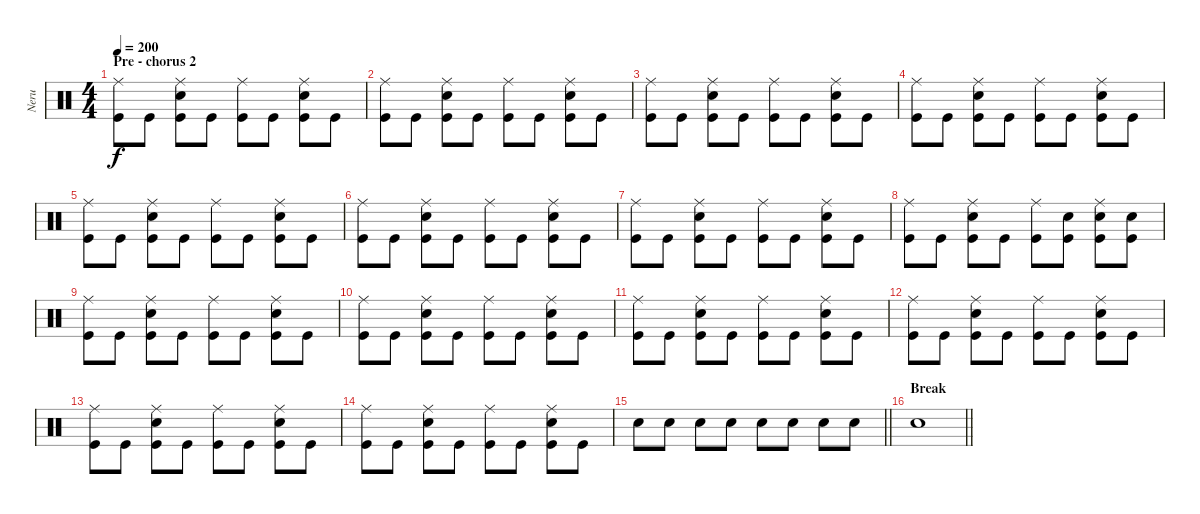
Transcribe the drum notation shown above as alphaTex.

\track ("Neru" "Neru") {instrument percussion}
\staff {score}
\articulation defaults
\ts (4 4)
\section ("" "Pre - chorus 2")
\tempo 200
\clef neutral
\ks c
("Ride (middle)" "Kick (hit)").8{dy f} "Kick (hit)".8 ("Ride (middle)" "Electric Snare (hit)" "Kick (hit)").8 "Kick (hit)".8 ("Ride (middle)" "Kick (hit)").8 "Kick (hit)".8 ("Ride (middle)" "Electric Snare (hit)" "Kick (hit)").8 "Kick (hit)".8 |
("Ride (middle)" "Kick (hit)").8 "Kick (hit)".8 ("Ride (middle)" "Electric Snare (hit)" "Kick (hit)").8 "Kick (hit)".8 ("Ride (middle)" "Kick (hit)").8 "Kick (hit)".8 ("Ride (middle)" "Electric Snare (hit)" "Kick (hit)").8 "Kick (hit)".8 |
("Ride (middle)" "Kick (hit)").8 "Kick (hit)".8 ("Ride (middle)" "Electric Snare (hit)" "Kick (hit)").8 "Kick (hit)".8 ("Ride (middle)" "Kick (hit)").8 "Kick (hit)".8 ("Ride (middle)" "Electric Snare (hit)" "Kick (hit)").8 "Kick (hit)".8 |
("Ride (middle)" "Kick (hit)").8 "Kick (hit)".8 ("Ride (middle)" "Electric Snare (hit)" "Kick (hit)").8 "Kick (hit)".8 ("Ride (middle)" "Kick (hit)").8 "Kick (hit)".8 ("Ride (middle)" "Electric Snare (hit)" "Kick (hit)").8 "Kick (hit)".8 |
("Ride (middle)" "Kick (hit)").8 "Kick (hit)".8 ("Ride (middle)" "Electric Snare (hit)" "Kick (hit)").8 "Kick (hit)".8 ("Ride (middle)" "Kick (hit)").8 "Kick (hit)".8 ("Ride (middle)" "Electric Snare (hit)" "Kick (hit)").8 "Kick (hit)".8 |
("Ride (middle)" "Kick (hit)").8 "Kick (hit)".8 ("Ride (middle)" "Electric Snare (hit)" "Kick (hit)").8 "Kick (hit)".8 ("Ride (middle)" "Kick (hit)").8 "Kick (hit)".8 ("Ride (middle)" "Electric Snare (hit)" "Kick (hit)").8 "Kick (hit)".8 |
("Ride (middle)" "Kick (hit)").8 "Kick (hit)".8 ("Ride (middle)" "Electric Snare (hit)" "Kick (hit)").8 "Kick (hit)".8 ("Ride (middle)" "Kick (hit)").8 "Kick (hit)".8 ("Ride (middle)" "Electric Snare (hit)" "Kick (hit)").8 "Kick (hit)".8 |
("Ride (middle)" "Kick (hit)").8 "Kick (hit)".8 ("Ride (middle)" "Electric Snare (hit)" "Kick (hit)").8 "Kick (hit)".8 ("Ride (middle)" "Kick (hit)").8 ("Electric Snare (hit)" "Kick (hit)").8 ("Ride (middle)" "Electric Snare (hit)" "Kick (hit)").8 ("Electric Snare (hit)" "Kick (hit)").8 |
("Ride (middle)" "Kick (hit)").8 "Kick (hit)".8 ("Ride (middle)" "Electric Snare (hit)" "Kick (hit)").8 "Kick (hit)".8 ("Ride (middle)" "Kick (hit)").8 "Kick (hit)".8 ("Ride (middle)" "Electric Snare (hit)" "Kick (hit)").8 "Kick (hit)".8 |
("Ride (middle)" "Kick (hit)").8 "Kick (hit)".8 ("Ride (middle)" "Electric Snare (hit)" "Kick (hit)").8 "Kick (hit)".8 ("Ride (middle)" "Kick (hit)").8 "Kick (hit)".8 ("Ride (middle)" "Electric Snare (hit)" "Kick (hit)").8 "Kick (hit)".8 |
("Ride (middle)" "Kick (hit)").8 "Kick (hit)".8 ("Ride (middle)" "Electric Snare (hit)" "Kick (hit)").8 "Kick (hit)".8 ("Ride (middle)" "Kick (hit)").8 "Kick (hit)".8 ("Ride (middle)" "Electric Snare (hit)" "Kick (hit)").8 "Kick (hit)".8 |
("Ride (middle)" "Kick (hit)").8 "Kick (hit)".8 ("Ride (middle)" "Electric Snare (hit)" "Kick (hit)").8 "Kick (hit)".8 ("Ride (middle)" "Kick (hit)").8 "Kick (hit)".8 ("Ride (middle)" "Electric Snare (hit)" "Kick (hit)").8 "Kick (hit)".8 |
("Ride (middle)" "Kick (hit)").8 "Kick (hit)".8 ("Ride (middle)" "Electric Snare (hit)" "Kick (hit)").8 "Kick (hit)".8 ("Ride (middle)" "Kick (hit)").8 "Kick (hit)".8 ("Ride (middle)" "Electric Snare (hit)" "Kick (hit)").8 "Kick (hit)".8 |
("Ride (middle)" "Kick (hit)").8 "Kick (hit)".8 ("Ride (middle)" "Electric Snare (hit)" "Kick (hit)").8 "Kick (hit)".8 ("Ride (middle)" "Kick (hit)").8 "Kick (hit)".8 ("Ride (middle)" "Electric Snare (hit)" "Kick (hit)").8 "Kick (hit)".8 |
\barLineRight lightlight "Electric Snare (hit)".8 "Electric Snare (hit)".8 "Electric Snare (hit)".8 "Electric Snare (hit)".8 "Electric Snare (hit)".8 "Electric Snare (hit)".8 "Electric Snare (hit)".8 "Electric Snare (hit)".8
|
\section ("" "Break")
\barLineRight lightlight "Electric Snare (hit)".1
